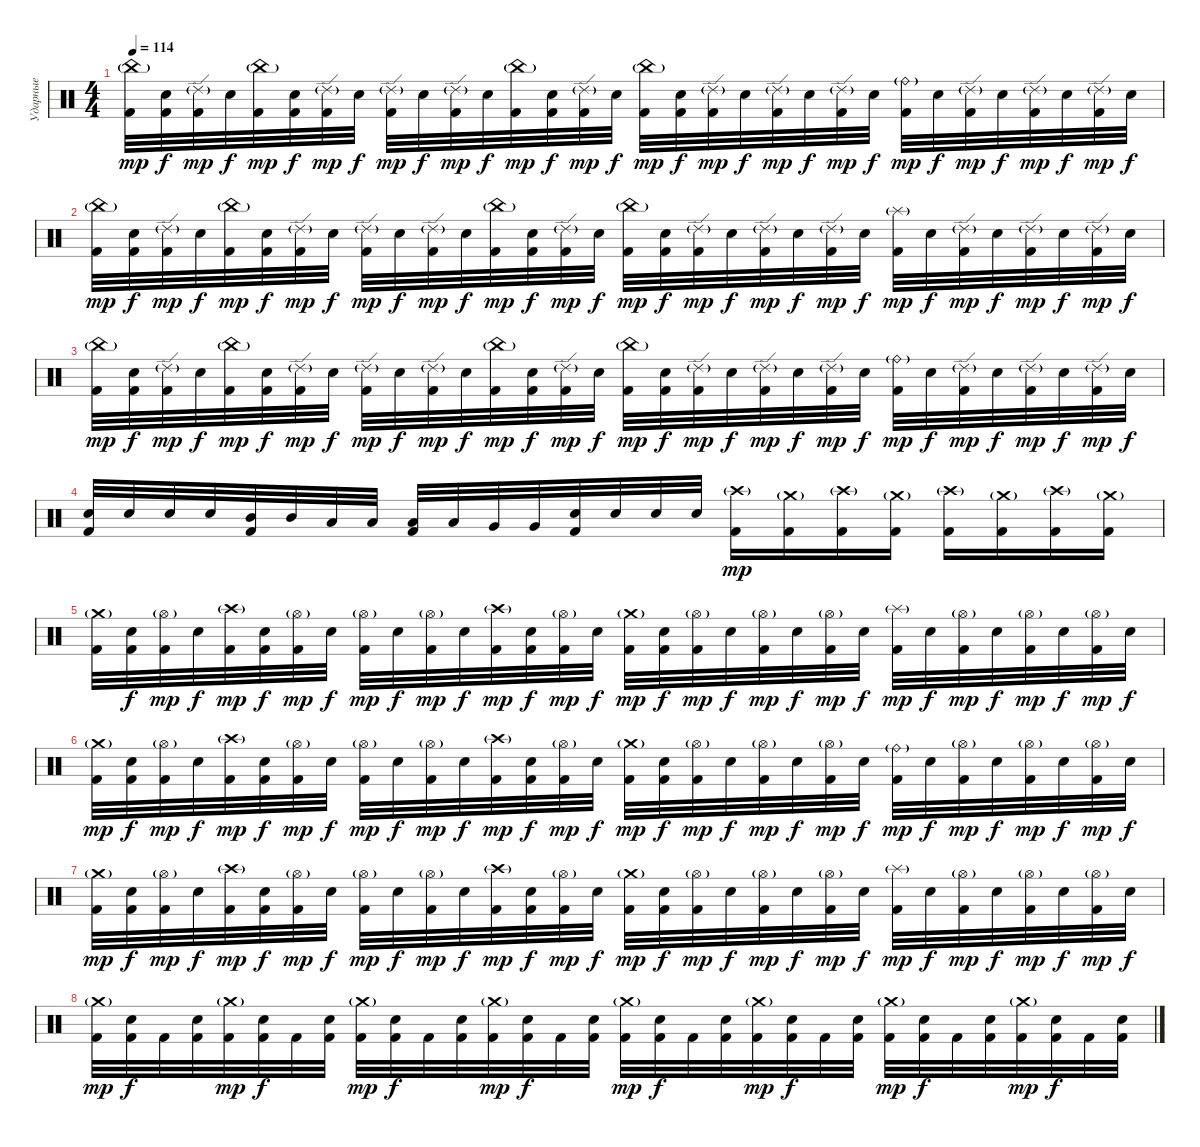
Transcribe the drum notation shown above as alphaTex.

\track ("Ударные" "Ударные") {instrument percussion}
\staff {score}
\articulation defaults
\ts (4 4)
\tempo 114
\clef neutral
\ks c
("China (hit)"{g} "Kick (hit) 2").32{dy mp} ("Electric Snare (hit)" "Kick (hit) 2").32{dy f} ("Ride (edge) 2"{g} "Kick (hit) 2").32{dy mp} "Electric Snare (hit)".32{dy f} ("China (hit)"{g} "Kick (hit) 2").32{dy mp} ("Electric Snare (hit)" "Kick (hit) 2").32{dy f} ("Ride (edge) 2"{g} "Kick (hit) 2").32{dy mp} "Electric Snare (hit)".32{dy f} ("Ride (edge) 2"{g} "Kick (hit) 2").32{dy mp} "Electric Snare (hit)".32{dy f} ("Ride (edge) 2"{g} "Kick (hit) 2").32{dy mp} "Electric Snare (hit)".32{dy f} ("China (hit)"{g} "Kick (hit) 2").32{dy mp} ("Electric Snare (hit)" "Kick (hit) 2").32{dy f} ("Ride (edge) 2"{g} "Kick (hit) 2").32{dy mp} "Electric Snare (hit)".32{dy f} ("China (hit)"{g} "Kick (hit) 2").32{dy mp} ("Electric Snare (hit)" "Kick (hit) 2").32{dy f} ("Ride (edge) 2"{g} "Kick (hit) 2").32{dy mp} "Electric Snare (hit)".32{dy f} ("Ride (edge) 2"{g} "Kick (hit) 2").32{dy mp} "Electric Snare (hit)".32{dy f} ("Ride (edge) 2"{g} "Kick (hit) 2").32{dy mp} "Electric Snare (hit)".32{dy f} ("Ride (bell)"{g} "Kick (hit) 2").32{dy mp} "Electric Snare (hit)".32{dy f} ("Ride (edge) 2"{g} "Kick (hit) 2").32{dy mp} "Electric Snare (hit)".32{dy f} ("Ride (edge) 2"{g} "Kick (hit) 2").32{dy mp} "Electric Snare (hit)".32{dy f} ("Ride (edge) 2"{g} "Kick (hit) 2").32{dy mp} "Electric Snare (hit)".32{dy f} |
("China (hit)"{g} "Kick (hit) 2").32{dy mp} ("Electric Snare (hit)" "Kick (hit) 2").32{dy f} ("Ride (edge) 2"{g} "Kick (hit) 2").32{dy mp} "Electric Snare (hit)".32{dy f} ("China (hit)"{g} "Kick (hit) 2").32{dy mp} ("Electric Snare (hit)" "Kick (hit) 2").32{dy f} ("Ride (edge) 2"{g} "Kick (hit) 2").32{dy mp} "Electric Snare (hit)".32{dy f} ("Ride (edge) 2"{g} "Kick (hit) 2").32{dy mp} "Electric Snare (hit)".32{dy f} ("Ride (edge) 2"{g} "Kick (hit) 2").32{dy mp} "Electric Snare (hit)".32{dy f} ("China (hit)"{g} "Kick (hit) 2").32{dy mp} ("Electric Snare (hit)" "Kick (hit) 2").32{dy f} ("Ride (edge) 2"{g} "Kick (hit) 2").32{dy mp} "Electric Snare (hit)".32{dy f} ("China (hit)"{g} "Kick (hit) 2").32{dy mp} ("Electric Snare (hit)" "Kick (hit) 2").32{dy f} ("Ride (edge) 2"{g} "Kick (hit) 2").32{dy mp} "Electric Snare (hit)".32{dy f} ("Ride (edge) 2"{g} "Kick (hit) 2").32{dy mp} "Electric Snare (hit)".32{dy f} ("Ride (edge) 2"{g} "Kick (hit) 2").32{dy mp} "Electric Snare (hit)".32{dy f} ("Splash (hit)"{g} "Kick (hit) 2").32{dy mp} "Electric Snare (hit)".32{dy f} ("Ride (edge) 2"{g} "Kick (hit) 2").32{dy mp} "Electric Snare (hit)".32{dy f} ("Ride (edge) 2"{g} "Kick (hit) 2").32{dy mp} "Electric Snare (hit)".32{dy f} ("Ride (edge) 2"{g} "Kick (hit) 2").32{dy mp} "Electric Snare (hit)".32{dy f} |
("China (hit)"{g} "Kick (hit) 2").32{dy mp} ("Electric Snare (hit)" "Kick (hit) 2").32{dy f} ("Ride (edge) 2"{g} "Kick (hit) 2").32{dy mp} "Electric Snare (hit)".32{dy f} ("China (hit)"{g} "Kick (hit) 2").32{dy mp} ("Electric Snare (hit)" "Kick (hit) 2").32{dy f} ("Ride (edge) 2"{g} "Kick (hit) 2").32{dy mp} "Electric Snare (hit)".32{dy f} ("Ride (edge) 2"{g} "Kick (hit) 2").32{dy mp} "Electric Snare (hit)".32{dy f} ("Ride (edge) 2"{g} "Kick (hit) 2").32{dy mp} "Electric Snare (hit)".32{dy f} ("China (hit)"{g} "Kick (hit) 2").32{dy mp} ("Electric Snare (hit)" "Kick (hit) 2").32{dy f} ("Ride (edge) 2"{g} "Kick (hit) 2").32{dy mp} "Electric Snare (hit)".32{dy f} ("China (hit)"{g} "Kick (hit) 2").32{dy mp} ("Electric Snare (hit)" "Kick (hit) 2").32{dy f} ("Ride (edge) 2"{g} "Kick (hit) 2").32{dy mp} "Electric Snare (hit)".32{dy f} ("Ride (edge) 2"{g} "Kick (hit) 2").32{dy mp} "Electric Snare (hit)".32{dy f} ("Ride (edge) 2"{g} "Kick (hit) 2").32{dy mp} "Electric Snare (hit)".32{dy f} ("Ride (bell)"{g} "Kick (hit) 2").32{dy mp} "Electric Snare (hit)".32{dy f} ("Ride (edge) 2"{g} "Kick (hit) 2").32{dy mp} "Electric Snare (hit)".32{dy f} ("Ride (edge) 2"{g} "Kick (hit) 2").32{dy mp} "Electric Snare (hit)".32{dy f} ("Ride (edge) 2"{g} "Kick (hit) 2").32{dy mp} "Electric Snare (hit)".32{dy f} |
("Electric Snare (hit)" "Kick (hit) 2").32 "Electric Snare (hit)".32 "Electric Snare (hit)".32 "Electric Snare (hit)".32 ("Mid Tom (hit)" "Kick (hit) 2").32 "Mid Tom (hit)".32 "Low Tom (hit)".32 "Low Tom (hit)".32 ("Low Tom (hit)" "Kick (hit) 2").32 "Low Tom (hit)".32 "Very Low Tom (hit)".32 "Very Low Tom (hit)".32 ("Electric Snare (hit)" "Kick (hit) 2").32 "Electric Snare (hit)".32 "Electric Snare (hit)".32 "Electric Snare (hit)".32 ("Crash high (hit)"{g} "Kick (hit) 2").16{dy mp} ("Crash medium (hit)"{g} "Kick (hit) 2").16 ("Crash high (hit)"{g} "Kick (hit) 2").16 ("Crash medium (hit)"{g} "Kick (hit) 2").16 ("Crash high (hit)"{g} "Kick (hit) 2").16 ("Crash medium (hit)"{g} "Kick (hit) 2").16 ("Crash high (hit)"{g} "Kick (hit) 2").16 ("Crash medium (hit)"{g} "Kick (hit) 2").16 |
("Crash medium (hit)"{g} "Kick (hit) 2").32 ("Electric Snare (hit)" "Kick (hit) 2").32{dy f} ("Hi-Hat (open)"{g} "Kick (hit) 2").32{dy mp} "Electric Snare (hit)".32{dy f} ("Crash high (hit)"{g} "Kick (hit) 2").32{dy mp} ("Electric Snare (hit)" "Kick (hit) 2").32{dy f} ("Hi-Hat (open)"{g} "Kick (hit) 2").32{dy mp} "Electric Snare (hit)".32{dy f} ("Hi-Hat (open)"{g} "Kick (hit) 2").32{dy mp} "Electric Snare (hit)".32{dy f} ("Hi-Hat (open)"{g} "Kick (hit) 2").32{dy mp} "Electric Snare (hit)".32{dy f} ("Crash high (hit)"{g} "Kick (hit) 2").32{dy mp} ("Electric Snare (hit)" "Kick (hit) 2").32{dy f} ("Hi-Hat (open)"{g} "Kick (hit) 2").32{dy mp} "Electric Snare (hit)".32{dy f} ("Crash medium (hit)"{g} "Kick (hit) 2").32{dy mp} ("Electric Snare (hit)" "Kick (hit) 2").32{dy f} ("Hi-Hat (open)"{g} "Kick (hit) 2").32{dy mp} "Electric Snare (hit)".32{dy f} ("Hi-Hat (open)"{g} "Kick (hit) 2").32{dy mp} "Electric Snare (hit)".32{dy f} ("Hi-Hat (open)"{g} "Kick (hit) 2").32{dy mp} "Electric Snare (hit)".32{dy f} ("Splash (hit)"{g} "Kick (hit) 2").32{dy mp} "Electric Snare (hit)".32{dy f} ("Hi-Hat (open)"{g} "Kick (hit) 2").32{dy mp} "Electric Snare (hit)".32{dy f} ("Hi-Hat (open)"{g} "Kick (hit) 2").32{dy mp} "Electric Snare (hit)".32{dy f} ("Hi-Hat (open)"{g} "Kick (hit) 2").32{dy mp} "Electric Snare (hit)".32{dy f} |
("Crash medium (hit)"{g} "Kick (hit) 2").32{dy mp} ("Electric Snare (hit)" "Kick (hit) 2").32{dy f} ("Hi-Hat (open)"{g} "Kick (hit) 2").32{dy mp} "Electric Snare (hit)".32{dy f} ("Crash high (hit)"{g} "Kick (hit) 2").32{dy mp} ("Electric Snare (hit)" "Kick (hit) 2").32{dy f} ("Hi-Hat (open)"{g} "Kick (hit) 2").32{dy mp} "Electric Snare (hit)".32{dy f} ("Hi-Hat (open)"{g} "Kick (hit) 2").32{dy mp} "Electric Snare (hit)".32{dy f} ("Hi-Hat (open)"{g} "Kick (hit) 2").32{dy mp} "Electric Snare (hit)".32{dy f} ("Crash high (hit)"{g} "Kick (hit) 2").32{dy mp} ("Electric Snare (hit)" "Kick (hit) 2").32{dy f} ("Hi-Hat (open)"{g} "Kick (hit) 2").32{dy mp} "Electric Snare (hit)".32{dy f} ("Crash medium (hit)"{g} "Kick (hit) 2").32{dy mp} ("Electric Snare (hit)" "Kick (hit) 2").32{dy f} ("Hi-Hat (open)"{g} "Kick (hit) 2").32{dy mp} "Electric Snare (hit)".32{dy f} ("Hi-Hat (open)"{g} "Kick (hit) 2").32{dy mp} "Electric Snare (hit)".32{dy f} ("Hi-Hat (open)"{g} "Kick (hit) 2").32{dy mp} "Electric Snare (hit)".32{dy f} ("Ride (bell)"{g} "Kick (hit) 2").32{dy mp} "Electric Snare (hit)".32{dy f} ("Hi-Hat (open)"{g} "Kick (hit) 2").32{dy mp} "Electric Snare (hit)".32{dy f} ("Hi-Hat (open)"{g} "Kick (hit) 2").32{dy mp} "Electric Snare (hit)".32{dy f} ("Hi-Hat (open)"{g} "Kick (hit) 2").32{dy mp} "Electric Snare (hit)".32{dy f} |
("Crash medium (hit)"{g} "Kick (hit) 2").32{dy mp} ("Electric Snare (hit)" "Kick (hit) 2").32{dy f} ("Hi-Hat (open)"{g} "Kick (hit) 2").32{dy mp} "Electric Snare (hit)".32{dy f} ("Crash high (hit)"{g} "Kick (hit) 2").32{dy mp} ("Electric Snare (hit)" "Kick (hit) 2").32{dy f} ("Hi-Hat (open)"{g} "Kick (hit) 2").32{dy mp} "Electric Snare (hit)".32{dy f} ("Hi-Hat (open)"{g} "Kick (hit) 2").32{dy mp} "Electric Snare (hit)".32{dy f} ("Hi-Hat (open)"{g} "Kick (hit) 2").32{dy mp} "Electric Snare (hit)".32{dy f} ("Crash high (hit)"{g} "Kick (hit) 2").32{dy mp} ("Electric Snare (hit)" "Kick (hit) 2").32{dy f} ("Hi-Hat (open)"{g} "Kick (hit) 2").32{dy mp} "Electric Snare (hit)".32{dy f} ("Crash medium (hit)"{g} "Kick (hit) 2").32{dy mp} ("Electric Snare (hit)" "Kick (hit) 2").32{dy f} ("Hi-Hat (open)"{g} "Kick (hit) 2").32{dy mp} "Electric Snare (hit)".32{dy f} ("Hi-Hat (open)"{g} "Kick (hit) 2").32{dy mp} "Electric Snare (hit)".32{dy f} ("Hi-Hat (open)"{g} "Kick (hit) 2").32{dy mp} "Electric Snare (hit)".32{dy f} ("Splash (hit)"{g} "Kick (hit) 2").32{dy mp} "Electric Snare (hit)".32{dy f} ("Hi-Hat (open)"{g} "Kick (hit) 2").32{dy mp} "Electric Snare (hit)".32{dy f} ("Hi-Hat (open)"{g} "Kick (hit) 2").32{dy mp} "Electric Snare (hit)".32{dy f} ("Hi-Hat (open)"{g} "Kick (hit) 2").32{dy mp} "Electric Snare (hit)".32{dy f} |
("Crash medium (hit)"{g} "Kick (hit) 2").32{dy mp} ("Electric Snare (hit)" "Kick (hit) 2").32{dy f} "Kick (hit) 2".32 ("Electric Snare (hit)" "Kick (hit) 2").32 ("Crash medium (hit)"{g} "Kick (hit) 2").32{dy mp} ("Electric Snare (hit)" "Kick (hit) 2").32{dy f} "Kick (hit) 2".32 ("Electric Snare (hit)" "Kick (hit) 2").32 ("Crash medium (hit)"{g} "Kick (hit) 2").32{dy mp} ("Electric Snare (hit)" "Kick (hit) 2").32{dy f} "Kick (hit) 2".32 ("Electric Snare (hit)" "Kick (hit) 2").32 ("Crash medium (hit)"{g} "Kick (hit) 2").32{dy mp} ("Electric Snare (hit)" "Kick (hit) 2").32{dy f} "Kick (hit) 2".32 ("Electric Snare (hit)" "Kick (hit) 2").32 ("Crash medium (hit)"{g} "Kick (hit) 2").32{dy mp} ("Electric Snare (hit)" "Kick (hit) 2").32{dy f} "Kick (hit) 2".32 ("Electric Snare (hit)" "Kick (hit) 2").32 ("Crash medium (hit)"{g} "Kick (hit) 2").32{dy mp} ("Electric Snare (hit)" "Kick (hit) 2").32{dy f} "Kick (hit) 2".32 ("Electric Snare (hit)" "Kick (hit) 2").32 ("Crash medium (hit)"{g} "Kick (hit) 2").32{dy mp} ("Electric Snare (hit)" "Kick (hit) 2").32{dy f} "Kick (hit) 2".32 ("Electric Snare (hit)" "Kick (hit) 2").32 ("Crash medium (hit)"{g} "Kick (hit) 2").32{dy mp} ("Electric Snare (hit)" "Kick (hit) 2").32{dy f} "Kick (hit) 2".32 ("Electric Snare (hit)" "Kick (hit) 2").32
